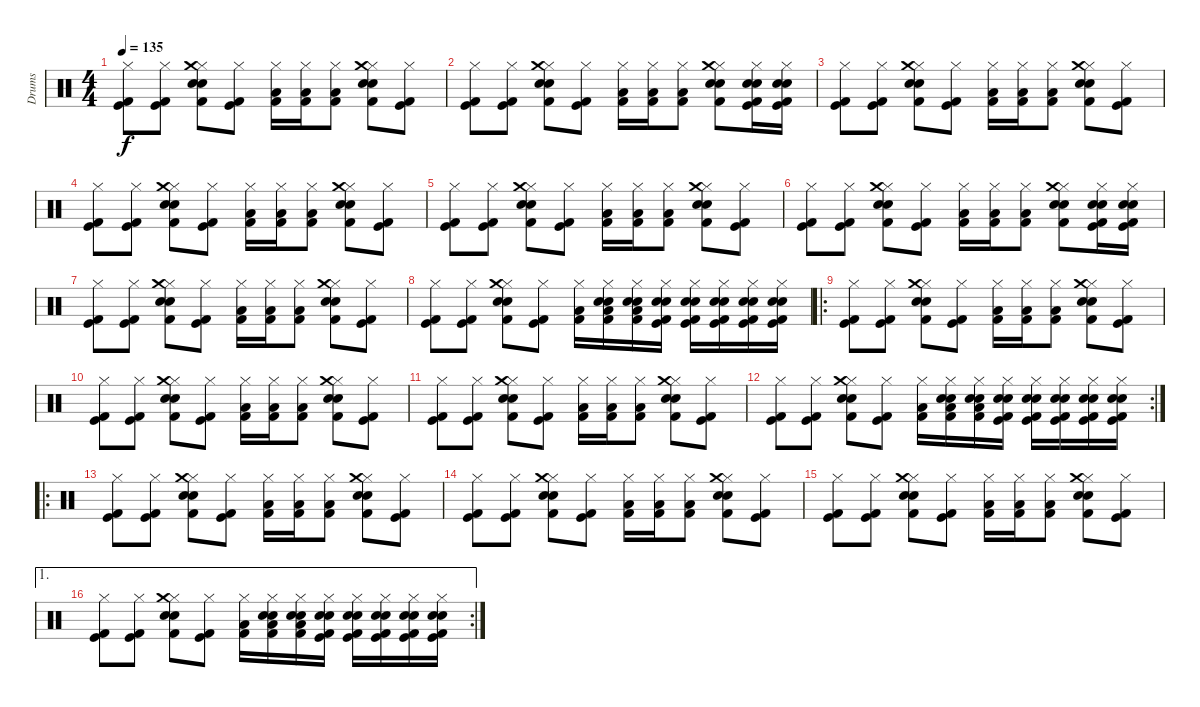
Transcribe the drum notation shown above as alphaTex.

\track ("Drums" "Drums") {instrument percussion}
\staff {score}
\articulation defaults
\ts (4 4)
\tempo 135
\clef neutral
\ks c
("Hi-Hat (closed)" "Kick (hit)" "Kick (hit) 2").8{dy f} ("Hi-Hat (closed)" "Kick (hit)" "Kick (hit) 2").8 ("Hi-Hat (closed)" "Electric Snare (hit)" "Crash medium (hit)" "Snare (hit) 2" "Kick (hit) 2").8 ("Hi-Hat (closed)" "Kick (hit)" "Kick (hit) 2").8 ("Hi-Hat (closed)" "Low Floor Tom (hit)" "Kick (hit) 2").16 ("Hi-Hat (closed)" "Low Floor Tom (hit)" "Kick (hit) 2").16 ("Hi-Hat (closed)" "Low Floor Tom (hit)" "Kick (hit) 2").8 ("Hi-Hat (closed)" "Electric Snare (hit)" "Crash medium (hit)" "Snare (hit) 2" "Kick (hit) 2").8 ("Hi-Hat (closed)" "Kick (hit)" "Kick (hit) 2").8 |
("Hi-Hat (closed)" "Kick (hit)" "Kick (hit) 2").8 ("Hi-Hat (closed)" "Kick (hit)" "Kick (hit) 2").8 ("Hi-Hat (closed)" "Electric Snare (hit)" "Crash medium (hit)" "Snare (hit) 2" "Kick (hit) 2").8 ("Hi-Hat (closed)" "Kick (hit)" "Kick (hit) 2").8 ("Hi-Hat (closed)" "Low Floor Tom (hit)" "Kick (hit) 2").16 ("Hi-Hat (closed)" "Low Floor Tom (hit)" "Kick (hit) 2").16 ("Hi-Hat (closed)" "Low Floor Tom (hit)" "Kick (hit) 2").8 ("Hi-Hat (closed)" "Electric Snare (hit)" "Crash medium (hit)" "Snare (hit) 2" "Kick (hit) 2").8 ("Electric Snare (hit)" "Snare (hit) 2" "Hi-Hat (closed)" "Kick (hit)" "Kick (hit) 2").16 ("Electric Snare (hit)" "Snare (hit) 2" "Hi-Hat (closed)" "Kick (hit)" "Kick (hit) 2").16 |
("Hi-Hat (closed)" "Kick (hit)" "Kick (hit) 2").8 ("Hi-Hat (closed)" "Kick (hit)" "Kick (hit) 2").8 ("Hi-Hat (closed)" "Electric Snare (hit)" "Crash medium (hit)" "Snare (hit) 2" "Kick (hit) 2").8 ("Hi-Hat (closed)" "Kick (hit)" "Kick (hit) 2").8 ("Hi-Hat (closed)" "Low Floor Tom (hit)" "Kick (hit) 2").16 ("Hi-Hat (closed)" "Low Floor Tom (hit)" "Kick (hit) 2").16 ("Hi-Hat (closed)" "Low Floor Tom (hit)" "Kick (hit) 2").8 ("Hi-Hat (closed)" "Electric Snare (hit)" "Crash medium (hit)" "Snare (hit) 2" "Kick (hit) 2").8 ("Hi-Hat (closed)" "Kick (hit)" "Kick (hit) 2").8 |
("Hi-Hat (closed)" "Kick (hit)" "Kick (hit) 2").8 ("Hi-Hat (closed)" "Kick (hit)" "Kick (hit) 2").8 ("Hi-Hat (closed)" "Electric Snare (hit)" "Crash medium (hit)" "Snare (hit) 2" "Kick (hit) 2").8 ("Hi-Hat (closed)" "Kick (hit)" "Kick (hit) 2").8 ("Hi-Hat (closed)" "Low Floor Tom (hit)" "Kick (hit) 2").16 ("Hi-Hat (closed)" "Low Floor Tom (hit)" "Kick (hit) 2").16 ("Hi-Hat (closed)" "Low Floor Tom (hit)" "Kick (hit) 2").8 ("Hi-Hat (closed)" "Electric Snare (hit)" "Crash medium (hit)" "Snare (hit) 2" "Kick (hit) 2").8 ("Hi-Hat (closed)" "Kick (hit)" "Kick (hit) 2").8 |
("Hi-Hat (closed)" "Kick (hit)" "Kick (hit) 2").8 ("Hi-Hat (closed)" "Kick (hit)" "Kick (hit) 2").8 ("Hi-Hat (closed)" "Electric Snare (hit)" "Crash medium (hit)" "Snare (hit) 2" "Kick (hit) 2").8 ("Hi-Hat (closed)" "Kick (hit)" "Kick (hit) 2").8 ("Hi-Hat (closed)" "Low Floor Tom (hit)" "Kick (hit) 2").16 ("Hi-Hat (closed)" "Low Floor Tom (hit)" "Kick (hit) 2").16 ("Hi-Hat (closed)" "Low Floor Tom (hit)" "Kick (hit) 2").8 ("Hi-Hat (closed)" "Electric Snare (hit)" "Crash medium (hit)" "Snare (hit) 2" "Kick (hit) 2").8 ("Hi-Hat (closed)" "Kick (hit)" "Kick (hit) 2").8 |
("Hi-Hat (closed)" "Kick (hit)" "Kick (hit) 2").8 ("Hi-Hat (closed)" "Kick (hit)" "Kick (hit) 2").8 ("Hi-Hat (closed)" "Electric Snare (hit)" "Crash medium (hit)" "Snare (hit) 2" "Kick (hit) 2").8 ("Hi-Hat (closed)" "Kick (hit)" "Kick (hit) 2").8 ("Hi-Hat (closed)" "Low Floor Tom (hit)" "Kick (hit) 2").16 ("Hi-Hat (closed)" "Low Floor Tom (hit)" "Kick (hit) 2").16 ("Hi-Hat (closed)" "Low Floor Tom (hit)" "Kick (hit) 2").8 ("Hi-Hat (closed)" "Electric Snare (hit)" "Crash medium (hit)" "Snare (hit) 2" "Kick (hit) 2").8 ("Electric Snare (hit)" "Snare (hit) 2" "Hi-Hat (closed)" "Kick (hit)" "Kick (hit) 2").16 ("Electric Snare (hit)" "Snare (hit) 2" "Hi-Hat (closed)" "Kick (hit)" "Kick (hit) 2").16 |
("Hi-Hat (closed)" "Kick (hit)" "Kick (hit) 2").8 ("Hi-Hat (closed)" "Kick (hit)" "Kick (hit) 2").8 ("Hi-Hat (closed)" "Electric Snare (hit)" "Crash medium (hit)" "Snare (hit) 2" "Kick (hit) 2").8 ("Hi-Hat (closed)" "Kick (hit)" "Kick (hit) 2").8 ("Hi-Hat (closed)" "Low Floor Tom (hit)" "Kick (hit) 2").16 ("Hi-Hat (closed)" "Low Floor Tom (hit)" "Kick (hit) 2").16 ("Hi-Hat (closed)" "Low Floor Tom (hit)" "Kick (hit) 2").8 ("Hi-Hat (closed)" "Electric Snare (hit)" "Crash medium (hit)" "Snare (hit) 2" "Kick (hit) 2").8 ("Hi-Hat (closed)" "Kick (hit)" "Kick (hit) 2").8 |
("Hi-Hat (closed)" "Kick (hit)" "Kick (hit) 2").8 ("Hi-Hat (closed)" "Kick (hit)" "Kick (hit) 2").8 ("Hi-Hat (closed)" "Electric Snare (hit)" "Crash medium (hit)" "Snare (hit) 2" "Kick (hit) 2").8 ("Hi-Hat (closed)" "Kick (hit)" "Kick (hit) 2").8 ("Hi-Hat (closed)" "Low Floor Tom (hit)" "Kick (hit) 2").16 ("Electric Snare (hit)" "Snare (hit) 2" "Hi-Hat (closed)" "Low Floor Tom (hit)" "Kick (hit) 2").16 ("Electric Snare (hit)" "Snare (hit) 2" "Hi-Hat (closed)" "Low Floor Tom (hit)" "Kick (hit) 2").16 ("Electric Snare (hit)" "Snare (hit) 2" "Hi-Hat (closed)" "Kick (hit)" "Kick (hit) 2").16 ("Electric Snare (hit)" "Snare (hit) 2" "Hi-Hat (closed)" "Kick (hit)" "Kick (hit) 2").16 ("Electric Snare (hit)" "Snare (hit) 2" "Hi-Hat (closed)" "Kick (hit)" "Kick (hit) 2").16 ("Electric Snare (hit)" "Snare (hit) 2" "Hi-Hat (closed)" "Kick (hit)" "Kick (hit) 2").16 ("Electric Snare (hit)" "Snare (hit) 2" "Hi-Hat (closed)" "Kick (hit)" "Kick (hit) 2").16 |
\ro
("Hi-Hat (closed)" "Kick (hit)" "Kick (hit) 2").8 ("Hi-Hat (closed)" "Kick (hit)" "Kick (hit) 2").8 ("Hi-Hat (closed)" "Electric Snare (hit)" "Crash medium (hit)" "Snare (hit) 2" "Kick (hit) 2").8 ("Hi-Hat (closed)" "Kick (hit)" "Kick (hit) 2").8 ("Hi-Hat (closed)" "Low Floor Tom (hit)" "Kick (hit) 2").16 ("Hi-Hat (closed)" "Low Floor Tom (hit)" "Kick (hit) 2").16 ("Hi-Hat (closed)" "Low Floor Tom (hit)" "Kick (hit) 2").8 ("Hi-Hat (closed)" "Electric Snare (hit)" "Crash medium (hit)" "Snare (hit) 2" "Kick (hit) 2").8 ("Hi-Hat (closed)" "Kick (hit)" "Kick (hit) 2").8 |
("Hi-Hat (closed)" "Kick (hit)" "Kick (hit) 2").8 ("Hi-Hat (closed)" "Kick (hit)" "Kick (hit) 2").8 ("Hi-Hat (closed)" "Electric Snare (hit)" "Crash medium (hit)" "Snare (hit) 2" "Kick (hit) 2").8 ("Hi-Hat (closed)" "Kick (hit)" "Kick (hit) 2").8 ("Hi-Hat (closed)" "Low Floor Tom (hit)" "Kick (hit) 2").16 ("Hi-Hat (closed)" "Low Floor Tom (hit)" "Kick (hit) 2").16 ("Hi-Hat (closed)" "Low Floor Tom (hit)" "Kick (hit) 2").8 ("Hi-Hat (closed)" "Electric Snare (hit)" "Crash medium (hit)" "Snare (hit) 2" "Kick (hit) 2").8 ("Hi-Hat (closed)" "Kick (hit)" "Kick (hit) 2").8 |
("Hi-Hat (closed)" "Kick (hit)" "Kick (hit) 2").8 ("Hi-Hat (closed)" "Kick (hit)" "Kick (hit) 2").8 ("Hi-Hat (closed)" "Electric Snare (hit)" "Crash medium (hit)" "Snare (hit) 2" "Kick (hit) 2").8 ("Hi-Hat (closed)" "Kick (hit)" "Kick (hit) 2").8 ("Hi-Hat (closed)" "Low Floor Tom (hit)" "Kick (hit) 2").16 ("Hi-Hat (closed)" "Low Floor Tom (hit)" "Kick (hit) 2").16 ("Hi-Hat (closed)" "Low Floor Tom (hit)" "Kick (hit) 2").8 ("Hi-Hat (closed)" "Electric Snare (hit)" "Crash medium (hit)" "Snare (hit) 2" "Kick (hit) 2").8 ("Hi-Hat (closed)" "Kick (hit)" "Kick (hit) 2").8 |
\rc 2
("Hi-Hat (closed)" "Kick (hit)" "Kick (hit) 2").8 ("Hi-Hat (closed)" "Kick (hit)" "Kick (hit) 2").8 ("Hi-Hat (closed)" "Electric Snare (hit)" "Crash medium (hit)" "Snare (hit) 2" "Kick (hit) 2").8 ("Hi-Hat (closed)" "Kick (hit)" "Kick (hit) 2").8 ("Hi-Hat (closed)" "Low Floor Tom (hit)" "Kick (hit) 2").16 ("Electric Snare (hit)" "Snare (hit) 2" "Hi-Hat (closed)" "Low Floor Tom (hit)" "Kick (hit) 2").16 ("Electric Snare (hit)" "Snare (hit) 2" "Hi-Hat (closed)" "Low Floor Tom (hit)" "Kick (hit) 2").16 ("Electric Snare (hit)" "Snare (hit) 2" "Hi-Hat (closed)" "Kick (hit)" "Kick (hit) 2").16 ("Electric Snare (hit)" "Snare (hit) 2" "Hi-Hat (closed)" "Kick (hit)" "Kick (hit) 2").16 ("Electric Snare (hit)" "Snare (hit) 2" "Hi-Hat (closed)" "Kick (hit)" "Kick (hit) 2").16 ("Electric Snare (hit)" "Snare (hit) 2" "Hi-Hat (closed)" "Kick (hit)" "Kick (hit) 2").16 ("Electric Snare (hit)" "Snare (hit) 2" "Hi-Hat (closed)" "Kick (hit)" "Kick (hit) 2").16 |
\ro
("Hi-Hat (closed)" "Kick (hit)" "Kick (hit) 2").8 ("Hi-Hat (closed)" "Kick (hit)" "Kick (hit) 2").8 ("Hi-Hat (closed)" "Electric Snare (hit)" "Crash medium (hit)" "Snare (hit) 2" "Kick (hit) 2").8 ("Hi-Hat (closed)" "Kick (hit)" "Kick (hit) 2").8 ("Hi-Hat (closed)" "Low Floor Tom (hit)" "Kick (hit) 2").16 ("Hi-Hat (closed)" "Low Floor Tom (hit)" "Kick (hit) 2").16 ("Hi-Hat (closed)" "Low Floor Tom (hit)" "Kick (hit) 2").8 ("Hi-Hat (closed)" "Electric Snare (hit)" "Crash medium (hit)" "Snare (hit) 2" "Kick (hit) 2").8 ("Hi-Hat (closed)" "Kick (hit)" "Kick (hit) 2").8 |
("Hi-Hat (closed)" "Kick (hit)" "Kick (hit) 2").8 ("Hi-Hat (closed)" "Kick (hit)" "Kick (hit) 2").8 ("Hi-Hat (closed)" "Electric Snare (hit)" "Crash medium (hit)" "Snare (hit) 2" "Kick (hit) 2").8 ("Hi-Hat (closed)" "Kick (hit)" "Kick (hit) 2").8 ("Hi-Hat (closed)" "Low Floor Tom (hit)" "Kick (hit) 2").16 ("Hi-Hat (closed)" "Low Floor Tom (hit)" "Kick (hit) 2").16 ("Hi-Hat (closed)" "Low Floor Tom (hit)" "Kick (hit) 2").8 ("Hi-Hat (closed)" "Electric Snare (hit)" "Crash medium (hit)" "Snare (hit) 2" "Kick (hit) 2").8 ("Hi-Hat (closed)" "Kick (hit)" "Kick (hit) 2").8 |
("Hi-Hat (closed)" "Kick (hit)" "Kick (hit) 2").8 ("Hi-Hat (closed)" "Kick (hit)" "Kick (hit) 2").8 ("Hi-Hat (closed)" "Electric Snare (hit)" "Crash medium (hit)" "Snare (hit) 2" "Kick (hit) 2").8 ("Hi-Hat (closed)" "Kick (hit)" "Kick (hit) 2").8 ("Hi-Hat (closed)" "Low Floor Tom (hit)" "Kick (hit) 2").16 ("Hi-Hat (closed)" "Low Floor Tom (hit)" "Kick (hit) 2").16 ("Hi-Hat (closed)" "Low Floor Tom (hit)" "Kick (hit) 2").8 ("Hi-Hat (closed)" "Electric Snare (hit)" "Crash medium (hit)" "Snare (hit) 2" "Kick (hit) 2").8 ("Hi-Hat (closed)" "Kick (hit)" "Kick (hit) 2").8 |
\ae 1
\rc 2
("Hi-Hat (closed)" "Kick (hit)" "Kick (hit) 2").8 ("Hi-Hat (closed)" "Kick (hit)" "Kick (hit) 2").8 ("Hi-Hat (closed)" "Electric Snare (hit)" "Crash medium (hit)" "Snare (hit) 2" "Kick (hit) 2").8 ("Hi-Hat (closed)" "Kick (hit)" "Kick (hit) 2").8 ("Hi-Hat (closed)" "Low Floor Tom (hit)" "Kick (hit) 2").16 ("Electric Snare (hit)" "Snare (hit) 2" "Hi-Hat (closed)" "Low Floor Tom (hit)" "Kick (hit) 2").16 ("Electric Snare (hit)" "Snare (hit) 2" "Hi-Hat (closed)" "Low Floor Tom (hit)" "Kick (hit) 2").16 ("Electric Snare (hit)" "Snare (hit) 2" "Hi-Hat (closed)" "Kick (hit)" "Kick (hit) 2").16 ("Electric Snare (hit)" "Snare (hit) 2" "Hi-Hat (closed)" "Kick (hit)" "Kick (hit) 2").16 ("Electric Snare (hit)" "Snare (hit) 2" "Hi-Hat (closed)" "Kick (hit)" "Kick (hit) 2").16 ("Electric Snare (hit)" "Snare (hit) 2" "Hi-Hat (closed)" "Kick (hit)" "Kick (hit) 2").16 ("Electric Snare (hit)" "Snare (hit) 2" "Hi-Hat (closed)" "Kick (hit)" "Kick (hit) 2").16
